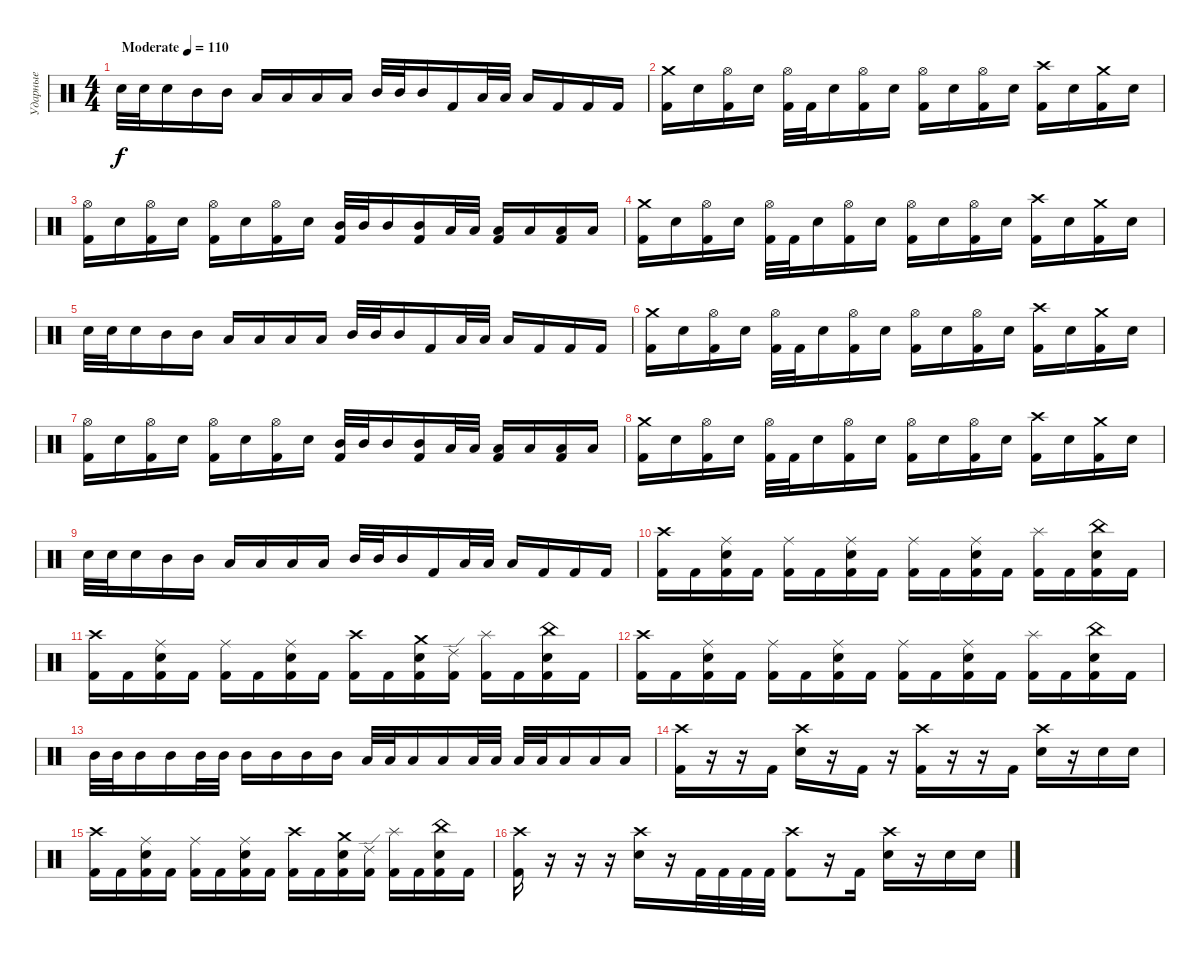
\track ("Ударные" "Ударные") {instrument percussion}
\staff {score}
\articulation defaults
\ts (4 4)
\tempo (110 "Moderate")
\clef neutral
\ks c "Snare (hit) 2".32{dy f} "Snare (hit) 2".32 "Snare (hit) 2".16 "Mid Tom (hit)".16 "Mid Tom (hit)".16 "Low Tom (hit)".16 "Low Tom (hit)".16 "Low Floor Tom (hit)".16 "Low Floor Tom (hit)".16 "Mid Tom (hit)".32 "Mid Tom (hit)".32 "Mid Tom (hit)".16 "Kick (hit) 2".16 "Low Tom (hit)".32 "Low Tom (hit)".32 "Low Tom (hit)".16 "Kick (hit) 2".16 "Kick (hit) 2".16 "Kick (hit) 2".16
|
("Crash medium (hit)" "Kick (hit) 2").16 "Snare (hit) 2".16 ("Hi-Hat (open)" "Kick (hit) 2").16 "Snare (hit) 2".16 ("Hi-Hat (open)" "Kick (hit) 2").32 "Kick (hit) 2".32 "Snare (hit) 2".16 ("Hi-Hat (open)" "Kick (hit) 2").16 "Snare (hit) 2".16 ("Hi-Hat (open)" "Kick (hit) 2").16 "Snare (hit) 2".16 ("Hi-Hat (open)" "Kick (hit) 2").16 "Snare (hit) 2".16 ("Crash high (hit)" "Kick (hit) 2").16 "Snare (hit) 2".16 ("Crash medium (hit)" "Kick (hit) 2").16 "Snare (hit) 2".16 |
("Hi-Hat (open)" "Kick (hit) 2").16 "Snare (hit) 2".16 ("Hi-Hat (open)" "Kick (hit) 2").16 "Snare (hit) 2".16 ("Hi-Hat (open)" "Kick (hit) 2").16 "Snare (hit) 2".16 ("Hi-Hat (open)" "Kick (hit) 2").16 "Snare (hit) 2".16 ("Mid Tom (hit)" "Kick (hit) 2").32 "Mid Tom (hit)".32 "Mid Tom (hit)".16 ("Mid Tom (hit)" "Kick (hit) 2").16 "Low Tom (hit)".32 "Low Tom (hit)".32 ("Low Tom (hit)" "Kick (hit) 2").16 "Low Tom (hit)".16 ("Low Floor Tom (hit)" "Kick (hit) 2").16 "Low Floor Tom (hit)".16 |
("Crash medium (hit)" "Kick (hit) 2").16 "Snare (hit) 2".16 ("Hi-Hat (open)" "Kick (hit) 2").16 "Snare (hit) 2".16 ("Hi-Hat (open)" "Kick (hit) 2").32 "Kick (hit) 2".32 "Snare (hit) 2".16 ("Hi-Hat (open)" "Kick (hit) 2").16 "Snare (hit) 2".16 ("Hi-Hat (open)" "Kick (hit) 2").16 "Snare (hit) 2".16 ("Hi-Hat (open)" "Kick (hit) 2").16 "Snare (hit) 2".16 ("Crash high (hit)" "Kick (hit) 2").16 "Snare (hit) 2".16 ("Crash medium (hit)" "Kick (hit) 2").16 "Snare (hit) 2".16 |
"Snare (hit) 2".32 "Snare (hit) 2".32 "Snare (hit) 2".16 "Mid Tom (hit)".16 "Mid Tom (hit)".16 "Low Tom (hit)".16 "Low Tom (hit)".16 "Low Floor Tom (hit)".16 "Low Floor Tom (hit)".16 "Mid Tom (hit)".32 "Mid Tom (hit)".32 "Mid Tom (hit)".16 "Kick (hit) 2".16 "Low Tom (hit)".32 "Low Tom (hit)".32 "Low Tom (hit)".16 "Kick (hit) 2".16 "Kick (hit) 2".16 "Kick (hit) 2".16 |
("Crash medium (hit)" "Kick (hit) 2").16 "Snare (hit) 2".16 ("Hi-Hat (open)" "Kick (hit) 2").16 "Snare (hit) 2".16 ("Hi-Hat (open)" "Kick (hit) 2").32 "Kick (hit) 2".32 "Snare (hit) 2".16 ("Hi-Hat (open)" "Kick (hit) 2").16 "Snare (hit) 2".16 ("Hi-Hat (open)" "Kick (hit) 2").16 "Snare (hit) 2".16 ("Hi-Hat (open)" "Kick (hit) 2").16 "Snare (hit) 2".16 ("Crash high (hit)" "Kick (hit) 2").16 "Snare (hit) 2".16 ("Crash medium (hit)" "Kick (hit) 2").16 "Snare (hit) 2".16 |
("Hi-Hat (open)" "Kick (hit) 2").16 "Snare (hit) 2".16 ("Hi-Hat (open)" "Kick (hit) 2").16 "Snare (hit) 2".16 ("Hi-Hat (open)" "Kick (hit) 2").16 "Snare (hit) 2".16 ("Hi-Hat (open)" "Kick (hit) 2").16 "Snare (hit) 2".16 ("Mid Tom (hit)" "Kick (hit) 2").32 "Mid Tom (hit)".32 "Mid Tom (hit)".16 ("Mid Tom (hit)" "Kick (hit) 2").16 "Low Tom (hit)".32 "Low Tom (hit)".32 ("Low Tom (hit)" "Kick (hit) 2").16 "Low Tom (hit)".16 ("Low Floor Tom (hit)" "Kick (hit) 2").16 "Low Floor Tom (hit)".16 |
("Crash medium (hit)" "Kick (hit) 2").16 "Snare (hit) 2".16 ("Hi-Hat (open)" "Kick (hit) 2").16 "Snare (hit) 2".16 ("Hi-Hat (open)" "Kick (hit) 2").32 "Kick (hit) 2".32 "Snare (hit) 2".16 ("Hi-Hat (open)" "Kick (hit) 2").16 "Snare (hit) 2".16 ("Hi-Hat (open)" "Kick (hit) 2").16 "Snare (hit) 2".16 ("Hi-Hat (open)" "Kick (hit) 2").16 "Snare (hit) 2".16 ("Crash high (hit)" "Kick (hit) 2").16 "Snare (hit) 2".16 ("Crash medium (hit)" "Kick (hit) 2").16 "Snare (hit) 2".16 |
"Snare (hit) 2".32 "Snare (hit) 2".32 "Snare (hit) 2".16 "Mid Tom (hit)".16 "Mid Tom (hit)".16 "Low Tom (hit)".16 "Low Tom (hit)".16 "Low Floor Tom (hit)".16 "Low Floor Tom (hit)".16 "Mid Tom (hit)".32 "Mid Tom (hit)".32 "Mid Tom (hit)".16 "Kick (hit) 2".16 "Low Tom (hit)".32 "Low Tom (hit)".32 "Low Tom (hit)".16 "Kick (hit) 2".16 "Kick (hit) 2".16 "Kick (hit) 2".16 |
("Crash high (hit)" "Kick (hit) 2").16 "Kick (hit) 2".16 ("Ride (middle)" "Snare (hit) 2" "Kick (hit) 2").16 "Kick (hit) 2".16 ("Ride (middle)" "Kick (hit) 2").16 "Kick (hit) 2".16 ("Ride (middle)" "Snare (hit) 2" "Kick (hit) 2").16 "Kick (hit) 2".16 ("Ride (middle)" "Kick (hit) 2").16 "Kick (hit) 2".16 ("Ride (middle)" "Snare (hit) 2" "Kick (hit) 2").16 "Kick (hit) 2".16 ("Splash (hit)" "Kick (hit) 2").16 "Kick (hit) 2".16 ("China (hit)" "Snare (hit) 2" "Kick (hit) 2").16 "Kick (hit) 2".16 |
("Crash high (hit)" "Kick (hit) 2").16 "Kick (hit) 2".16 ("Ride (middle)" "Snare (hit) 2" "Kick (hit) 2").16 "Kick (hit) 2".16 ("Ride (middle)" "Kick (hit) 2").16 "Kick (hit) 2".16 ("Ride (middle)" "Snare (hit) 2" "Kick (hit) 2").16 "Kick (hit) 2".16 ("Crash high (hit)" "Kick (hit) 2").16 "Kick (hit) 2".16 ("Crash medium (hit)" "Snare (hit) 2" "Kick (hit) 2").16 ("Ride (edge) 2" "Kick (hit) 2").16 ("Splash (hit)" "Kick (hit) 2").16 "Kick (hit) 2".16 ("China (hit)" "Snare (hit) 2" "Kick (hit) 2").16 "Kick (hit) 2".16 |
("Crash high (hit)" "Kick (hit) 2").16 "Kick (hit) 2".16 ("Ride (middle)" "Snare (hit) 2" "Kick (hit) 2").16 "Kick (hit) 2".16 ("Ride (middle)" "Kick (hit) 2").16 "Kick (hit) 2".16 ("Ride (middle)" "Snare (hit) 2" "Kick (hit) 2").16 "Kick (hit) 2".16 ("Ride (middle)" "Kick (hit) 2").16 "Kick (hit) 2".16 ("Ride (middle)" "Snare (hit) 2" "Kick (hit) 2").16 "Kick (hit) 2".16 ("Splash (hit)" "Kick (hit) 2").16 "Kick (hit) 2".16 ("China (hit)" "Snare (hit) 2" "Kick (hit) 2").16 "Kick (hit) 2".16 |
"Mid Tom (hit)".32 "Mid Tom (hit)".32 "Mid Tom (hit)".16 "Mid Tom (hit)".16 "Mid Tom (hit)".32 "Mid Tom (hit)".32 "Mid Tom (hit)".16 "Mid Tom (hit)".16 "Mid Tom (hit)".16 "Mid Tom (hit)".16 "Low Floor Tom (hit)".32 "Low Floor Tom (hit)".32 "Low Floor Tom (hit)".16 "Low Floor Tom (hit)".16 "Low Floor Tom (hit)".32 "Low Floor Tom (hit)".32 "Low Floor Tom (hit)".32 "Low Floor Tom (hit)".32 "Low Floor Tom (hit)".16 "Low Floor Tom (hit)".16 "Low Floor Tom (hit)".16 |
("Crash high (hit)" "Kick (hit) 2").16 r.16 r.16 "Kick (hit) 2".16 ("Crash high (hit)" "Snare (hit) 2").16 r.16 "Kick (hit) 2".16 r.16 ("Crash high (hit)" "Kick (hit) 2").16 r.16 r.16 "Kick (hit) 2".16 ("Crash high (hit)" "Snare (hit) 2").16 r.16 "Snare (hit) 2".16 "Snare (hit) 2".16 |
("Crash high (hit)" "Kick (hit) 2").16 "Kick (hit) 2".16 ("Ride (middle)" "Snare (hit) 2" "Kick (hit) 2").16 "Kick (hit) 2".16 ("Ride (middle)" "Kick (hit) 2").16 "Kick (hit) 2".16 ("Ride (middle)" "Snare (hit) 2" "Kick (hit) 2").16 "Kick (hit) 2".16 ("Crash high (hit)" "Kick (hit) 2").16 "Kick (hit) 2".16 ("Crash medium (hit)" "Snare (hit) 2" "Kick (hit) 2").16 ("Ride (edge) 2" "Kick (hit) 2").16 ("Splash (hit)" "Kick (hit) 2").16 "Kick (hit) 2".16 ("China (hit)" "Snare (hit) 2" "Kick (hit) 2").16 "Kick (hit) 2".16 |
("Crash high (hit)" "Kick (hit) 2").16 r.16 r.16 r.16 ("Crash high (hit)" "Snare (hit) 2").16 r.16 "Kick (hit) 2".32 "Kick (hit) 2".32 "Kick (hit) 2".32 "Kick (hit) 2".32 ("Crash high (hit)" "Kick (hit) 2").8 r.16 "Kick (hit) 2".16 ("Crash high (hit)" "Snare (hit) 2").16 r.16 "Snare (hit) 2".16 "Snare (hit) 2".16
